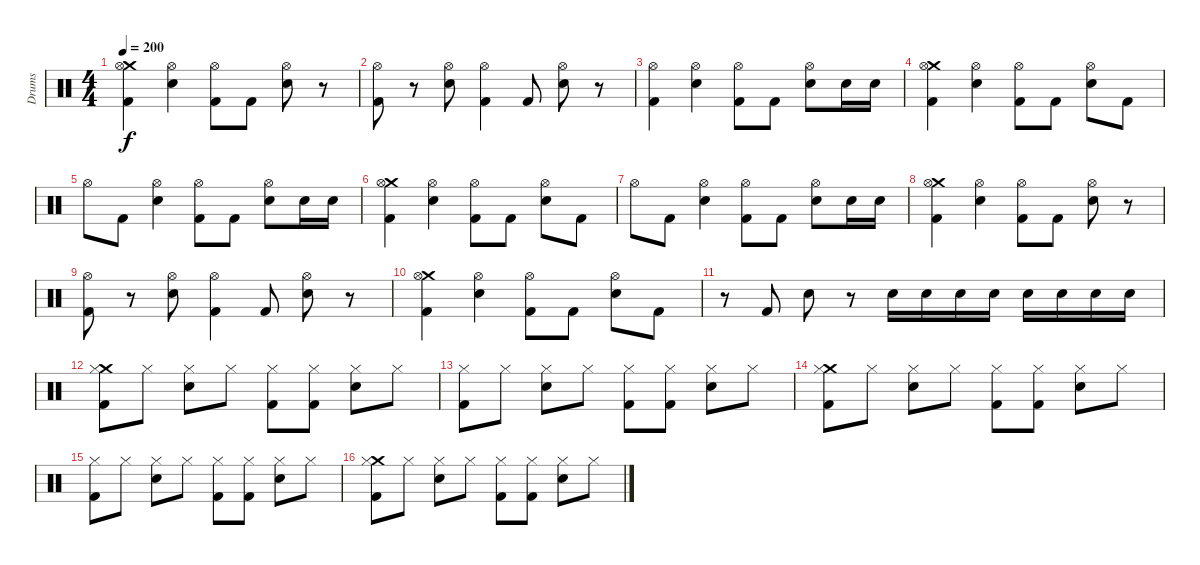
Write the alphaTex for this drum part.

\track ("Drums" "Drums") {instrument percussion}
\staff {score}
\articulation defaults
\ts (4 4)
\tempo 200
\clef neutral
\ks c
("Crash medium (hit)" "Hi-Hat (open)" "Kick (hit) 2").4{dy f} ("Hi-Hat (open)" "Snare (hit) 2").4 ("Hi-Hat (open)" "Kick (hit) 2").8 "Kick (hit) 2".8 ("Hi-Hat (open)" "Snare (hit) 2").8 r.8 |
("Hi-Hat (open)" "Kick (hit) 2").8 r.8 ("Hi-Hat (open)" "Snare (hit) 2").8 ("Hi-Hat (open)" "Kick (hit) 2").4 "Kick (hit) 2".8 ("Hi-Hat (open)" "Snare (hit) 2").8 r.8 |
("Hi-Hat (open)" "Kick (hit) 2").4 ("Hi-Hat (open)" "Snare (hit) 2").4 ("Hi-Hat (open)" "Kick (hit) 2").8 "Kick (hit) 2".8 ("Hi-Hat (open)" "Snare (hit) 2").8 "Snare (hit) 2".16 "Snare (hit) 2".16 |
("Crash medium (hit)" "Hi-Hat (open)" "Kick (hit) 2").4 ("Hi-Hat (open)" "Snare (hit) 2").4 ("Hi-Hat (open)" "Kick (hit) 2").8 "Kick (hit) 2".8 ("Hi-Hat (open)" "Snare (hit) 2").8 "Kick (hit) 2".8 |
"Hi-Hat (open)".8 "Kick (hit) 2".8 ("Hi-Hat (open)" "Snare (hit) 2").4 ("Hi-Hat (open)" "Kick (hit) 2").8 "Kick (hit) 2".8 ("Hi-Hat (open)" "Snare (hit) 2").8 "Snare (hit) 2".16 "Snare (hit) 2".16 |
("Crash medium (hit)" "Hi-Hat (open)" "Kick (hit) 2").4 ("Hi-Hat (open)" "Snare (hit) 2").4 ("Hi-Hat (open)" "Kick (hit) 2").8 "Kick (hit) 2".8 ("Hi-Hat (open)" "Snare (hit) 2").8 "Kick (hit) 2".8 |
"Hi-Hat (open)".8 "Kick (hit) 2".8 ("Hi-Hat (open)" "Snare (hit) 2").4 ("Hi-Hat (open)" "Kick (hit) 2").8 "Kick (hit) 2".8 ("Hi-Hat (open)" "Snare (hit) 2").8 "Snare (hit) 2".16 "Snare (hit) 2".16 |
("Crash medium (hit)" "Hi-Hat (open)" "Kick (hit) 2").4 ("Hi-Hat (open)" "Snare (hit) 2").4 ("Hi-Hat (open)" "Kick (hit) 2").8 "Kick (hit) 2".8 ("Hi-Hat (open)" "Snare (hit) 2").8 r.8 |
("Hi-Hat (open)" "Kick (hit) 2").8 r.8 ("Hi-Hat (open)" "Snare (hit) 2").8 ("Hi-Hat (open)" "Kick (hit) 2").4 "Kick (hit) 2".8 ("Hi-Hat (open)" "Snare (hit) 2").8 r.8 |
("Crash medium (hit)" "Hi-Hat (open)" "Kick (hit) 2").4 ("Hi-Hat (open)" "Snare (hit) 2").4 ("Hi-Hat (open)" "Kick (hit) 2").8 "Kick (hit) 2".8 ("Hi-Hat (open)" "Snare (hit) 2").8 "Kick (hit) 2".8 |
r.8 "Kick (hit) 2".8 "Snare (hit) 2".8 r.8 "Snare (hit) 2".16 "Snare (hit) 2".16 "Snare (hit) 2".16 "Snare (hit) 2".16 "Snare (hit) 2".16 "Snare (hit) 2".16 "Snare (hit) 2".16 "Snare (hit) 2".16 |
("Crash medium (hit)" "Hi-Hat (closed)" "Kick (hit) 2").8 "Hi-Hat (closed)".8 ("Hi-Hat (closed)" "Snare (hit) 2").8 "Hi-Hat (closed)".8 ("Hi-Hat (closed)" "Kick (hit) 2").8 ("Hi-Hat (closed)" "Kick (hit) 2").8 ("Hi-Hat (closed)" "Snare (hit) 2").8 "Hi-Hat (closed)".8 |
("Hi-Hat (closed)" "Kick (hit) 2").8 "Hi-Hat (closed)".8 ("Hi-Hat (closed)" "Snare (hit) 2").8 "Hi-Hat (closed)".8 ("Hi-Hat (closed)" "Kick (hit) 2").8 ("Hi-Hat (closed)" "Kick (hit) 2").8 ("Hi-Hat (closed)" "Snare (hit) 2").8 "Hi-Hat (closed)".8 |
("Crash medium (hit)" "Hi-Hat (closed)" "Kick (hit) 2").8 "Hi-Hat (closed)".8 ("Hi-Hat (closed)" "Snare (hit) 2").8 "Hi-Hat (closed)".8 ("Hi-Hat (closed)" "Kick (hit) 2").8 ("Hi-Hat (closed)" "Kick (hit) 2").8 ("Hi-Hat (closed)" "Snare (hit) 2").8 "Hi-Hat (closed)".8 |
("Hi-Hat (closed)" "Kick (hit) 2").8 "Hi-Hat (closed)".8 ("Hi-Hat (closed)" "Snare (hit) 2").8 "Hi-Hat (closed)".8 ("Hi-Hat (closed)" "Kick (hit) 2").8 ("Hi-Hat (closed)" "Kick (hit) 2").8 ("Hi-Hat (closed)" "Snare (hit) 2").8 "Hi-Hat (closed)".8 |
("Crash medium (hit)" "Hi-Hat (closed)" "Kick (hit) 2").8 "Hi-Hat (closed)".8 ("Hi-Hat (closed)" "Snare (hit) 2").8 "Hi-Hat (closed)".8 ("Hi-Hat (closed)" "Kick (hit) 2").8 ("Hi-Hat (closed)" "Kick (hit) 2").8 ("Hi-Hat (closed)" "Snare (hit) 2").8 "Hi-Hat (closed)".8
